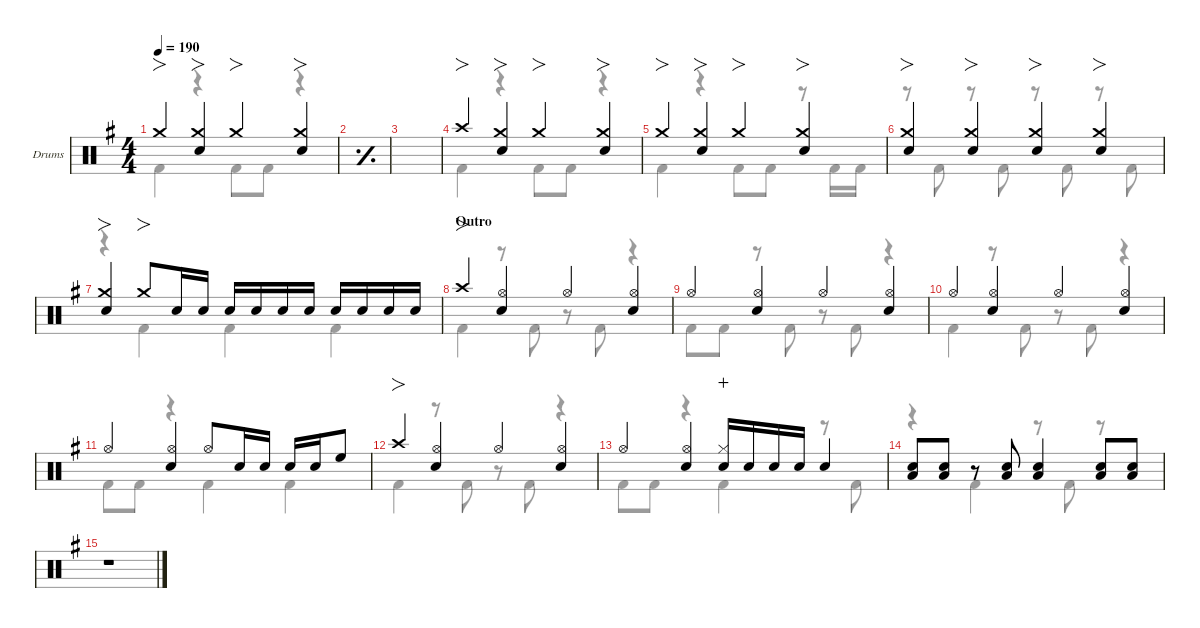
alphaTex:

\defaultSystemsLayout 4
\hideDynamics
\bracketExtendMode nobrackets
\firstSystemTrackNameOrientation horizontal
\track ("Drums" "Drums") {defaultSystemsLayout 4 instrument percussion}
\staff {score}
\articulation defaults
\voice
\ts (4 4)
\tempo 190
\clef neutral
\ks g "Crash medium (hit)"{acc forcenatural}.4{fo dy f}
("Crash medium (hit)"{acc forcenatural} "Snare (hit) 2"{acc forcenatural}).4{fo} "Crash medium (hit)"{acc forcenatural}.4{fo} ("Crash medium (hit)"{acc forcenatural} "Snare (hit) 2"{acc forcenatural}).4{fo} |
\simile simple
|
|
\simile none "Crash high (hit)"{acc forcenatural}.4{fo}
("Crash medium (hit)"{acc forcenatural} "Snare (hit) 2"{acc forcenatural}).4{fo} "Crash medium (hit)"{acc forcenatural}.4{fo} ("Crash medium (hit)"{acc forcenatural} "Snare (hit) 2"{acc forcenatural}).4{fo} |
"Crash medium (hit)"{acc forcenatural}.4{fo} ("Crash medium (hit)"{acc forcenatural} "Snare (hit) 2"{acc forcenatural}).4{fo} "Crash medium (hit)"{acc forcenatural}.4{fo} ("Crash medium (hit)"{acc forcenatural} "Snare (hit) 2"{acc forcenatural}).4{fo} |
("Crash medium (hit)"{acc forcenatural} "Snare (hit) 2"{acc forcenatural}).4{fo} ("Crash medium (hit)"{acc forcenatural} "Snare (hit) 2"{acc forcenatural}).4{fo} ("Crash medium (hit)"{acc forcenatural} "Snare (hit) 2"{acc forcenatural}).4{fo} ("Crash medium (hit)"{acc forcenatural} "Snare (hit) 2"{acc forcenatural}).4{fo} |
("Crash medium (hit)"{acc forcenatural} "Snare (hit) 2"{acc forcenatural}).4{fo} "Crash medium (hit)"{acc forcenatural}.8{fo} "Snare (hit) 2"{acc forcenatural}.16 "Snare (hit) 2"{acc forcenatural}.16{dy mf} "Snare (hit) 2"{acc forcenatural}.16{dy f} "Snare (hit) 2"{acc forcenatural}.16{dy mf} "Snare (hit) 2"{acc forcenatural}.16{dy f} "Snare (hit) 2"{acc forcenatural}.16{dy mf beam split} "Snare (hit) 2"{acc forcenatural}.16{dy f} "Snare (hit) 2"{acc forcenatural}.16{dy mf} "Snare (hit) 2"{acc forcenatural}.16{dy f} "Snare (hit) 2"{acc forcenatural}.16{dy mf} |
\section ("" "Outro")
"Crash high (hit)"{acc forcenatural}.4{fo dy f} ("Hi-Hat (open)"{acc forcenatural} "Snare (hit) 2"{acc forcenatural}).4 "Hi-Hat (open)"{acc forcenatural}.4 ("Hi-Hat (open)"{acc forcenatural} "Snare (hit) 2"{acc forcenatural}).4 |
"Hi-Hat (open)"{acc forcenatural}.4 ("Hi-Hat (open)"{acc forcenatural} "Snare (hit) 2"{acc forcenatural}).4 "Hi-Hat (open)"{acc forcenatural}.4 ("Hi-Hat (open)"{acc forcenatural} "Snare (hit) 2"{acc forcenatural}).4 |
"Hi-Hat (open)"{acc forcenatural}.4 ("Hi-Hat (open)"{acc forcenatural} "Snare (hit) 2"{acc forcenatural}).4 "Hi-Hat (open)"{acc forcenatural}.4 ("Hi-Hat (open)"{acc forcenatural} "Snare (hit) 2"{acc forcenatural}).4 |
"Hi-Hat (open)"{acc forcenatural}.4 ("Hi-Hat (open)"{acc forcenatural} "Snare (hit) 2"{acc forcenatural}).4 "Hi-Hat (open)"{acc forcenatural}.8 "Snare (hit) 2"{acc forcenatural}.16 "Snare (hit) 2"{acc forcenatural}.16{dy mf beam split} "Snare (hit) 2"{acc forcenatural}.16{dy f} "Snare (hit) 2"{acc forcenatural}.16{dy mf beam merge} "High Floor Tom (hit)"{acc forcenatural}.8{dy f} |
"Crash high (hit)"{acc forcenatural}.4{fo} ("Hi-Hat (open)"{acc forcenatural} "Snare (hit) 2"{acc forcenatural}).4 "Hi-Hat (open)"{acc forcenatural}.4 ("Hi-Hat (open)"{acc forcenatural} "Snare (hit) 2"{acc forcenatural}).4 |
"Hi-Hat (open)"{acc forcenatural}.4 ("Hi-Hat (open)"{acc forcenatural} "Snare (hit) 2"{acc forcenatural}).4 ("Hi-Hat (closed)"{acc forcenatural} "Snare (hit) 2"{acc forcenatural}).16{wahc} "Snare (hit) 2"{acc forcenatural}.16{dy mf} "Snare (hit) 2"{acc forcenatural}.16{dy f} "Snare (hit) 2"{acc forcenatural}.16{dy mf} "Snare (hit) 2"{acc forcenatural}.4{dy f} |
("Snare (hit) 2"{acc forcenatural} "Low Tom (hit)"{acc forcenatural}).8 ("Snare (hit) 2"{acc forcenatural} "Low Tom (hit)"{acc forcenatural}).8 r.8 ("Snare (hit) 2"{acc forcenatural} "Low Tom (hit)"{acc forcenatural}).8 ("Snare (hit) 2"{acc forcenatural} "Low Tom (hit)"{acc forcenatural}).4 ("Snare (hit) 2"{acc forcenatural} "Low Tom (hit)"{acc forcenatural}).8 ("Snare (hit) 2"{acc forcenatural} "Low Tom (hit)"{acc forcenatural}).8 |
r.1
\voice
\clef neutral
\ottava regular
\simile none
\ks g "Kick (hit) 2"{acc forcenatural}.4{dy f}
r.4 "Kick (hit) 2"{acc forcenatural}.8 "Kick (hit) 2"{acc forcenatural}.8 r.4 |
\simile simple
|
|
\simile none "Kick (hit) 2"{acc forcenatural}.4
r.4 "Kick (hit) 2"{acc forcenatural}.8 "Kick (hit) 2"{acc forcenatural}.8 r.4 |
"Kick (hit) 2"{acc forcenatural}.4 r.4 "Kick (hit) 2"{acc forcenatural}.8 "Kick (hit) 2"{acc forcenatural}.8{beam split} r.8{beam split} "Kick (hit) 2"{acc forcenatural}.16 "Kick (hit) 2"{acc forcenatural}.16 |
r.8 "Kick (hit) 2"{acc forcenatural}.8 r.8 "Kick (hit) 2"{acc forcenatural}.8 r.8 "Kick (hit) 2"{acc forcenatural}.8 r.8 "Kick (hit) 2"{acc forcenatural}.8 |
r.4 "Kick (hit) 2"{acc forcenatural}.4 "Kick (hit) 2"{acc forcenatural}.4 "Kick (hit) 2"{acc forcenatural}.4 |
"Kick (hit) 2"{acc forcenatural}.4 r.8 "Kick (hit) 2"{acc forcenatural}.8 r.8 "Kick (hit) 2"{acc forcenatural}.8 r.4 |
"Kick (hit) 2"{acc forcenatural}.8 "Kick (hit) 2"{acc forcenatural}.8{beam split} r.8 "Kick (hit) 2"{acc forcenatural}.8 r.8 "Kick (hit) 2"{acc forcenatural}.8 r.4 |
"Kick (hit) 2"{acc forcenatural}.4 r.8 "Kick (hit) 2"{acc forcenatural}.8 r.8 "Kick (hit) 2"{acc forcenatural}.8 r.4 |
"Kick (hit) 2"{acc forcenatural}.8 "Kick (hit) 2"{acc forcenatural}.8 r.4 "Kick (hit) 2"{acc forcenatural}.4 "Kick (hit) 2"{acc forcenatural}.4 |
"Kick (hit) 2"{acc forcenatural}.4 r.8 "Kick (hit) 2"{acc forcenatural}.8 r.8 "Kick (hit) 2"{acc forcenatural}.8 r.4 |
"Kick (hit) 2"{acc forcenatural}.8 "Kick (hit) 2"{acc forcenatural}.8 r.4 "Kick (hit) 2"{acc forcenatural}.4 r.8 "Kick (hit) 2"{acc forcenatural}.8 |
r.4 "Kick (hit) 2"{acc forcenatural}.4 r.8 "Kick (hit) 2"{acc forcenatural}.8 r.8 |
r.1
